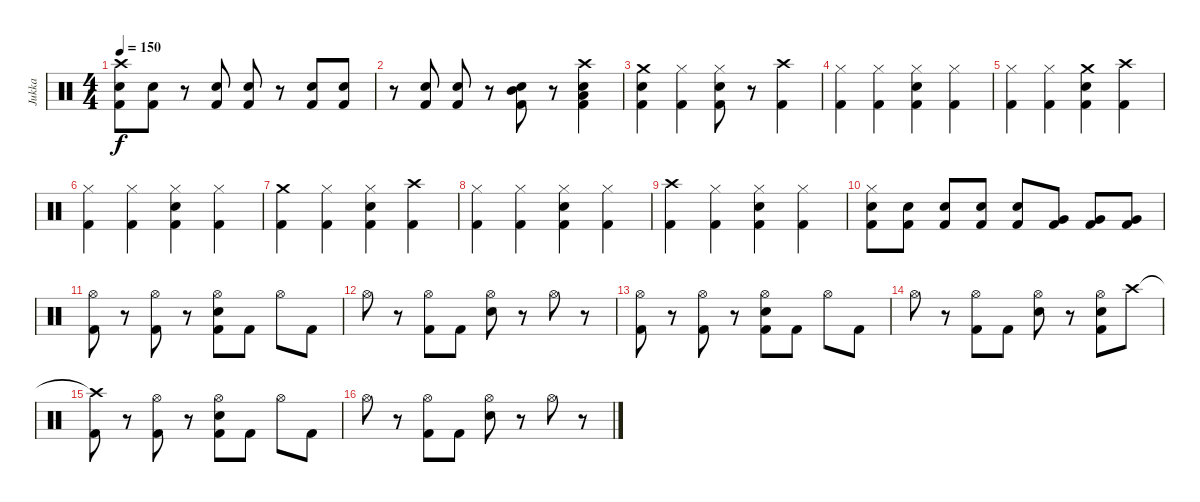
\track ("Jukka" "Jukka") {instrument percussion}
\staff {score}
\articulation defaults
\ts (4 4)
\tempo 150
\clef neutral
\ks c
("Crash high (hit)" "Electric Snare (hit)" "Kick (hit) 2").8{dy f} ("Electric Snare (hit)" "Kick (hit) 2").8 r.8 ("Electric Snare (hit)" "Kick (hit) 2").8 ("Electric Snare (hit)" "Kick (hit) 2").8 r.8 ("Electric Snare (hit)" "Kick (hit) 2").8 ("Electric Snare (hit)" "Kick (hit) 2").8 |
r.8 ("Electric Snare (hit)" "Kick (hit) 2").8 ("Electric Snare (hit)" "Kick (hit) 2").8 r.8 ("Electric Snare (hit)" "Mid Tom (hit)" "Kick (hit) 2").8 r.8 ("Crash high (hit)" "Electric Snare (hit)" "Low Tom (hit)" "Kick (hit) 2").4 |
("Crash medium (hit)" "Electric Snare (hit)" "Kick (hit) 2").4 ("Hi-Hat (closed)" "Kick (hit) 2").4 ("Hi-Hat (closed)" "Electric Snare (hit)" "Kick (hit) 2").8 r.8 ("Crash high (hit)" "Kick (hit) 2").4 |
("Hi-Hat (closed)" "Kick (hit) 2").4 ("Hi-Hat (closed)" "Kick (hit) 2").4 ("Hi-Hat (closed)" "Electric Snare (hit)" "Kick (hit) 2").4 ("Hi-Hat (closed)" "Kick (hit) 2").4 |
("Hi-Hat (closed)" "Kick (hit) 2").4 ("Hi-Hat (closed)" "Kick (hit) 2").4 ("Crash medium (hit)" "Electric Snare (hit)" "Kick (hit) 2").4 ("Crash high (hit)" "Kick (hit) 2").4 |
("Hi-Hat (closed)" "Kick (hit) 2").4 ("Hi-Hat (closed)" "Kick (hit) 2").4 ("Hi-Hat (closed)" "Electric Snare (hit)" "Kick (hit) 2").4 ("Hi-Hat (closed)" "Kick (hit) 2").4 |
("Crash medium (hit)" "Kick (hit) 2").4 ("Hi-Hat (closed)" "Kick (hit) 2").4 ("Hi-Hat (closed)" "Electric Snare (hit)" "Kick (hit) 2").4 ("Crash high (hit)" "Kick (hit) 2").4 |
("Hi-Hat (closed)" "Kick (hit) 2").4 ("Hi-Hat (closed)" "Kick (hit) 2").4 ("Hi-Hat (closed)" "Electric Snare (hit)" "Kick (hit) 2").4 ("Hi-Hat (closed)" "Kick (hit) 2").4 |
("Crash high (hit)" "Kick (hit) 2").4 ("Hi-Hat (closed)" "Kick (hit) 2").4 ("Hi-Hat (closed)" "Electric Snare (hit)" "Kick (hit) 2").4 ("Hi-Hat (closed)" "Kick (hit) 2").4 |
("Hi-Hat (closed)" "Electric Snare (hit)" "Kick (hit) 2").8 ("Electric Snare (hit)" "Kick (hit) 2").8 ("Electric Snare (hit)" "Kick (hit) 2").8 ("Electric Snare (hit)" "Kick (hit) 2").8 ("Electric Snare (hit)" "Kick (hit) 2").8 ("Very Low Tom (hit)" "Kick (hit) 2").8 ("Very Low Tom (hit)" "Kick (hit) 2").8 ("Very Low Tom (hit)" "Kick (hit) 2").8 |
("Hi-Hat (open)" "Kick (hit) 2").8 r.8 ("Hi-Hat (open)" "Kick (hit) 2").8 r.8 ("Hi-Hat (open)" "Electric Snare (hit)" "Kick (hit) 2").8 "Kick (hit) 2".8 "Hi-Hat (open)".8 "Kick (hit) 2".8 |
"Hi-Hat (open)".8 r.8 ("Hi-Hat (open)" "Kick (hit) 2").8 "Kick (hit) 2".8 ("Hi-Hat (open)" "Electric Snare (hit)").8 r.8 "Hi-Hat (open)".8 r.8 |
("Hi-Hat (open)" "Kick (hit) 2").8 r.8 ("Hi-Hat (open)" "Kick (hit) 2").8 r.8 ("Hi-Hat (open)" "Electric Snare (hit)" "Kick (hit) 2").8 "Kick (hit) 2".8 "Hi-Hat (open)".8 "Kick (hit) 2".8 |
"Hi-Hat (open)".8 r.8 ("Hi-Hat (open)" "Kick (hit) 2").8 "Kick (hit) 2".8 ("Hi-Hat (open)" "Electric Snare (hit)").8 r.8 ("Hi-Hat (open)" "Electric Snare (hit)" "Kick (hit) 2").8 "Crash high (hit)".8 |
("Crash high (hit)"{t} "Kick (hit) 2").8 r.8 ("Hi-Hat (open)" "Kick (hit) 2").8 r.8 ("Hi-Hat (open)" "Electric Snare (hit)" "Kick (hit) 2").8 "Kick (hit) 2".8 "Hi-Hat (open)".8 "Kick (hit) 2".8 |
"Hi-Hat (open)".8 r.8 ("Hi-Hat (open)" "Kick (hit) 2").8 "Kick (hit) 2".8 ("Hi-Hat (open)" "Electric Snare (hit)").8 r.8 "Hi-Hat (open)".8 r.8
